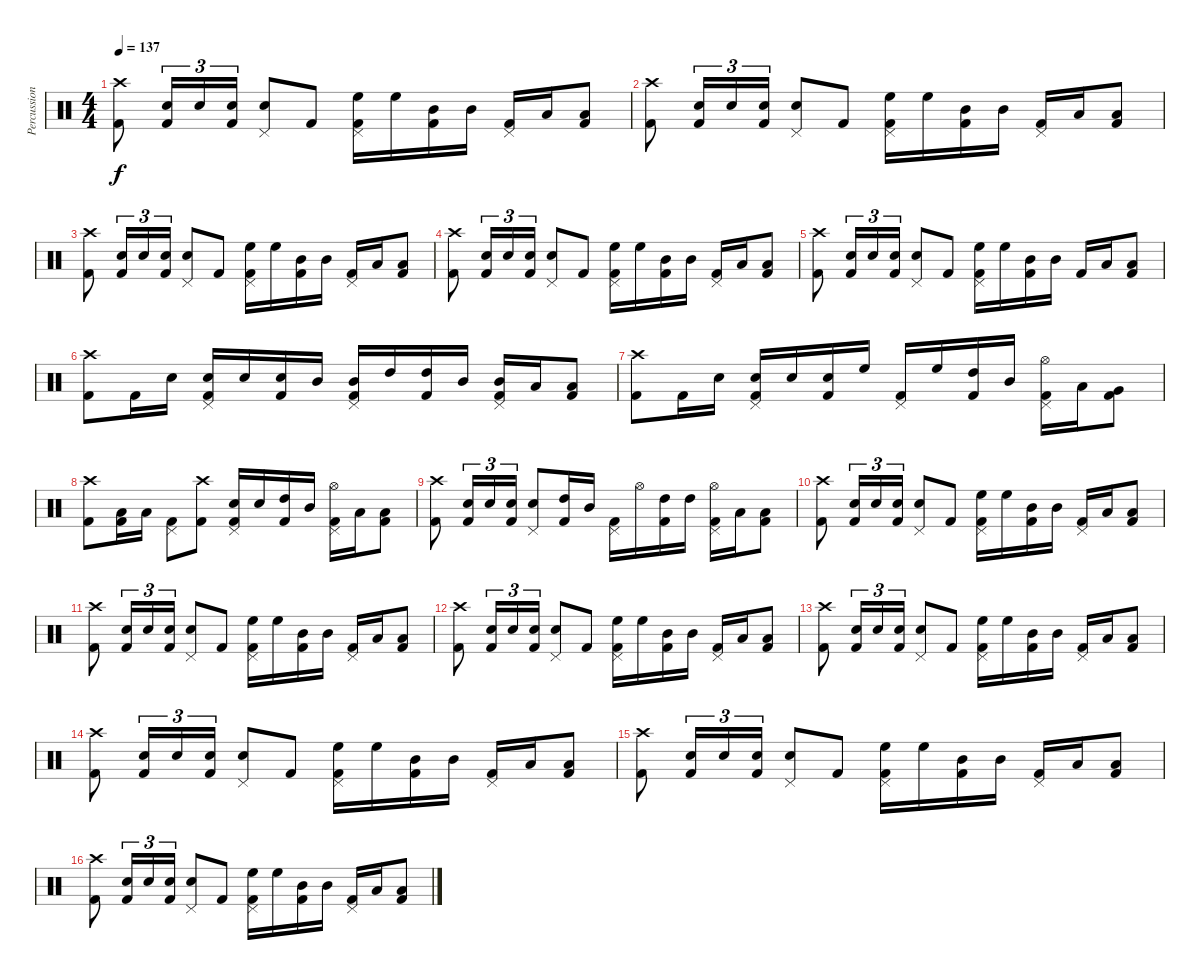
\track ("Percussion" "Percussion") {instrument percussion}
\staff {score}
\articulation defaults
\ts (4 4)
\tempo 137
\clef neutral
\ks c
("Kick (hit) 2" "Crash high (hit)").8{dy f} ("Kick (hit) 2" "Snare (hit) 2").16{tu (3 2)} "Snare (hit) 2".16{tu (3 2)} ("Kick (hit) 2" "Snare (hit) 2").16{tu (3 2)} ("Snare (hit) 2" "Pedal Hi-Hat (hit)").8 "Kick (hit) 2".8 ("Kick (hit) 2" "High Floor Tom (hit)" "Pedal Hi-Hat (hit)").16 "High Floor Tom (hit)".16 ("Kick (hit) 2" "Mid Tom (hit)").16 "Mid Tom (hit)".16 ("Kick (hit) 2" "Pedal Hi-Hat (hit)").16 "Low Tom (hit)".16 ("Kick (hit) 2" "Low Tom (hit)").8 |
("Kick (hit) 2" "Crash high (hit)").8 ("Kick (hit) 2" "Snare (hit) 2").16{tu (3 2)} "Snare (hit) 2".16{tu (3 2)} ("Kick (hit) 2" "Snare (hit) 2").16{tu (3 2)} ("Snare (hit) 2" "Pedal Hi-Hat (hit)").8 "Kick (hit) 2".8 ("Kick (hit) 2" "High Floor Tom (hit)" "Pedal Hi-Hat (hit)").16 "High Floor Tom (hit)".16 ("Kick (hit) 2" "Mid Tom (hit)").16 "Mid Tom (hit)".16 ("Kick (hit) 2" "Pedal Hi-Hat (hit)").16 "Low Tom (hit)".16 ("Kick (hit) 2" "Low Tom (hit)").8 |
("Kick (hit) 2" "Crash high (hit)").8 ("Kick (hit) 2" "Snare (hit) 2").16{tu (3 2)} "Snare (hit) 2".16{tu (3 2)} ("Kick (hit) 2" "Snare (hit) 2").16{tu (3 2)} ("Snare (hit) 2" "Pedal Hi-Hat (hit)").8 "Kick (hit) 2".8 ("Kick (hit) 2" "High Floor Tom (hit)" "Pedal Hi-Hat (hit)").16 "High Floor Tom (hit)".16 ("Kick (hit) 2" "Mid Tom (hit)").16 "Mid Tom (hit)".16 ("Kick (hit) 2" "Pedal Hi-Hat (hit)").16 "Low Tom (hit)".16 ("Kick (hit) 2" "Low Tom (hit)").8 |
("Kick (hit) 2" "Crash high (hit)").8 ("Kick (hit) 2" "Snare (hit) 2").16{tu (3 2)} "Snare (hit) 2".16{tu (3 2)} ("Kick (hit) 2" "Snare (hit) 2").16{tu (3 2)} ("Snare (hit) 2" "Pedal Hi-Hat (hit)").8 "Kick (hit) 2".8 ("Kick (hit) 2" "High Floor Tom (hit)" "Pedal Hi-Hat (hit)").16 "High Floor Tom (hit)".16 ("Kick (hit) 2" "Mid Tom (hit)").16 "Mid Tom (hit)".16 ("Kick (hit) 2" "Pedal Hi-Hat (hit)").16 "Low Tom (hit)".16 ("Kick (hit) 2" "Low Tom (hit)").8 |
("Kick (hit) 2" "Crash high (hit)").8 ("Kick (hit) 2" "Snare (hit) 2").16{tu (3 2)} "Snare (hit) 2".16{tu (3 2)} ("Kick (hit) 2" "Snare (hit) 2").16{tu (3 2)} ("Snare (hit) 2" "Pedal Hi-Hat (hit)").8 "Kick (hit) 2".8 ("Kick (hit) 2" "High Floor Tom (hit)" "Pedal Hi-Hat (hit)").16 "High Floor Tom (hit)".16 ("Kick (hit) 2" "Mid Tom (hit)").16 "Mid Tom (hit)".16 "Kick (hit) 2".16 "Low Tom (hit)".16 ("Kick (hit) 2" "Low Tom (hit)").8 |
("Kick (hit) 2" "Crash high (hit)").8 "Kick (hit) 2".16 "Snare (hit) 2".16 ("Kick (hit) 2" "Snare (hit) 2" "Pedal Hi-Hat (hit)").16 "Snare (hit) 2".16 ("Kick (hit) 2" "Snare (hit) 2").16 "Mid Tom (hit)".16 ("Kick (hit) 2" "Mid Tom (hit)" "Pedal Hi-Hat (hit)").16 "High Tom (hit)".16 ("Kick (hit) 2" "High Tom (hit)").16 "Mid Tom (hit)".16 ("Kick (hit) 2" "Mid Tom (hit)" "Pedal Hi-Hat (hit)").16 "Low Tom (hit)".16 ("Kick (hit) 2" "Low Tom (hit)").8 |
("Kick (hit) 2" "Crash high (hit)").8 "Kick (hit) 2".16 "Snare (hit) 2".16 ("Kick (hit) 2" "Snare (hit) 2" "Pedal Hi-Hat (hit)").16 "Snare (hit) 2".16 ("Kick (hit) 2" "Snare (hit) 2").16 "High Floor Tom (hit)".16 ("Kick (hit) 2" "Pedal Hi-Hat (hit)").16 "High Floor Tom (hit)".16 ("Kick (hit) 2" "High Tom (hit)").16 "Mid Tom (hit)".16 ("Kick (hit) 2" "Hi-Hat (open)" "Pedal Hi-Hat (hit)").16 "Low Tom (hit)".16 ("Kick (hit) 2" "Very Low Tom (hit)").8 |
("Kick (hit) 2" "Crash high (hit)").8 ("Kick (hit) 2" "Low Tom (hit)").16 "Low Floor Tom (hit)".16 ("Kick (hit) 2" "Pedal Hi-Hat (hit)").8 ("Kick (hit) 2" "Crash high (hit)").8 ("Kick (hit) 2" "Snare (hit) 2" "Pedal Hi-Hat (hit)").16 "Snare (hit) 2".16 ("Kick (hit) 2" "High Tom (hit)").16 "Mid Tom (hit)".16 ("Kick (hit) 2" "Hi-Hat (open)" "Pedal Hi-Hat (hit)").16 "Low Tom (hit)".16 ("Kick (hit) 2" "Low Tom (hit)").8 |
("Kick (hit) 2" "Crash high (hit)").8 ("Kick (hit) 2" "Snare (hit) 2").16{tu (3 2)} "Snare (hit) 2".16{tu (3 2)} ("Kick (hit) 2" "Snare (hit) 2").16{tu (3 2)} ("Snare (hit) 2" "Pedal Hi-Hat (hit)").8 ("Kick (hit) 2" "High Tom (hit)").16 "Mid Tom (hit)".16 ("Kick (hit) 2" "Pedal Hi-Hat (hit)").16 "Hi-Hat (open)".16 ("Kick (hit) 2" "High Tom (hit)").16 "High Tom (hit)".16 ("Kick (hit) 2" "Hi-Hat (open)" "Pedal Hi-Hat (hit)").16 "Low Tom (hit)".16 ("Kick (hit) 2" "Low Tom (hit)").8 |
("Kick (hit) 2" "Crash high (hit)").8 ("Kick (hit) 2" "Snare (hit) 2").16{tu (3 2)} "Snare (hit) 2".16{tu (3 2)} ("Kick (hit) 2" "Snare (hit) 2").16{tu (3 2)} ("Snare (hit) 2" "Pedal Hi-Hat (hit)").8 "Kick (hit) 2".8 ("Kick (hit) 2" "High Floor Tom (hit)" "Pedal Hi-Hat (hit)").16 "High Floor Tom (hit)".16 ("Kick (hit) 2" "Mid Tom (hit)").16 "Mid Tom (hit)".16 ("Kick (hit) 2" "Pedal Hi-Hat (hit)").16 "Low Tom (hit)".16 ("Kick (hit) 2" "Low Tom (hit)").8 |
("Kick (hit) 2" "Crash high (hit)").8 ("Kick (hit) 2" "Snare (hit) 2").16{tu (3 2)} "Snare (hit) 2".16{tu (3 2)} ("Kick (hit) 2" "Snare (hit) 2").16{tu (3 2)} ("Snare (hit) 2" "Pedal Hi-Hat (hit)").8 "Kick (hit) 2".8 ("Kick (hit) 2" "High Floor Tom (hit)" "Pedal Hi-Hat (hit)").16 "High Floor Tom (hit)".16 ("Kick (hit) 2" "Mid Tom (hit)").16 "Mid Tom (hit)".16 ("Kick (hit) 2" "Pedal Hi-Hat (hit)").16 "Low Tom (hit)".16 ("Kick (hit) 2" "Low Tom (hit)").8 |
("Kick (hit) 2" "Crash high (hit)").8 ("Kick (hit) 2" "Snare (hit) 2").16{tu (3 2)} "Snare (hit) 2".16{tu (3 2)} ("Kick (hit) 2" "Snare (hit) 2").16{tu (3 2)} ("Snare (hit) 2" "Pedal Hi-Hat (hit)").8 "Kick (hit) 2".8 ("Kick (hit) 2" "High Floor Tom (hit)" "Pedal Hi-Hat (hit)").16 "High Floor Tom (hit)".16 ("Kick (hit) 2" "Mid Tom (hit)").16 "Mid Tom (hit)".16 ("Kick (hit) 2" "Pedal Hi-Hat (hit)").16 "Low Tom (hit)".16 ("Kick (hit) 2" "Low Tom (hit)").8 |
("Kick (hit) 2" "Crash high (hit)").8 ("Kick (hit) 2" "Snare (hit) 2").16{tu (3 2)} "Snare (hit) 2".16{tu (3 2)} ("Kick (hit) 2" "Snare (hit) 2").16{tu (3 2)} ("Snare (hit) 2" "Pedal Hi-Hat (hit)").8 "Kick (hit) 2".8 ("Kick (hit) 2" "High Floor Tom (hit)" "Pedal Hi-Hat (hit)").16 "High Floor Tom (hit)".16 ("Kick (hit) 2" "Mid Tom (hit)").16 "Mid Tom (hit)".16 ("Kick (hit) 2" "Pedal Hi-Hat (hit)").16 "Low Tom (hit)".16 ("Kick (hit) 2" "Low Tom (hit)").8 |
("Kick (hit) 2" "Crash high (hit)").8 ("Kick (hit) 2" "Snare (hit) 2").16{tu (3 2)} "Snare (hit) 2".16{tu (3 2)} ("Kick (hit) 2" "Snare (hit) 2").16{tu (3 2)} ("Snare (hit) 2" "Pedal Hi-Hat (hit)").8 "Kick (hit) 2".8 ("Kick (hit) 2" "High Floor Tom (hit)" "Pedal Hi-Hat (hit)").16 "High Floor Tom (hit)".16 ("Kick (hit) 2" "Mid Tom (hit)").16 "Mid Tom (hit)".16 ("Kick (hit) 2" "Pedal Hi-Hat (hit)").16 "Low Tom (hit)".16 ("Kick (hit) 2" "Low Tom (hit)").8 |
("Kick (hit) 2" "Crash high (hit)").8 ("Kick (hit) 2" "Snare (hit) 2").16{tu (3 2)} "Snare (hit) 2".16{tu (3 2)} ("Kick (hit) 2" "Snare (hit) 2").16{tu (3 2)} ("Snare (hit) 2" "Pedal Hi-Hat (hit)").8 "Kick (hit) 2".8 ("Kick (hit) 2" "High Floor Tom (hit)" "Pedal Hi-Hat (hit)").16 "High Floor Tom (hit)".16 ("Kick (hit) 2" "Mid Tom (hit)").16 "Mid Tom (hit)".16 ("Kick (hit) 2" "Pedal Hi-Hat (hit)").16 "Low Tom (hit)".16 ("Kick (hit) 2" "Low Tom (hit)").8 |
("Kick (hit) 2" "Crash high (hit)").8 ("Kick (hit) 2" "Snare (hit) 2").16{tu (3 2)} "Snare (hit) 2".16{tu (3 2)} ("Kick (hit) 2" "Snare (hit) 2").16{tu (3 2)} ("Snare (hit) 2" "Pedal Hi-Hat (hit)").8 "Kick (hit) 2".8 ("Kick (hit) 2" "High Floor Tom (hit)" "Pedal Hi-Hat (hit)").16 "High Floor Tom (hit)".16 ("Kick (hit) 2" "Mid Tom (hit)").16 "Mid Tom (hit)".16 ("Kick (hit) 2" "Pedal Hi-Hat (hit)").16 "Low Tom (hit)".16 ("Kick (hit) 2" "Low Tom (hit)").8
